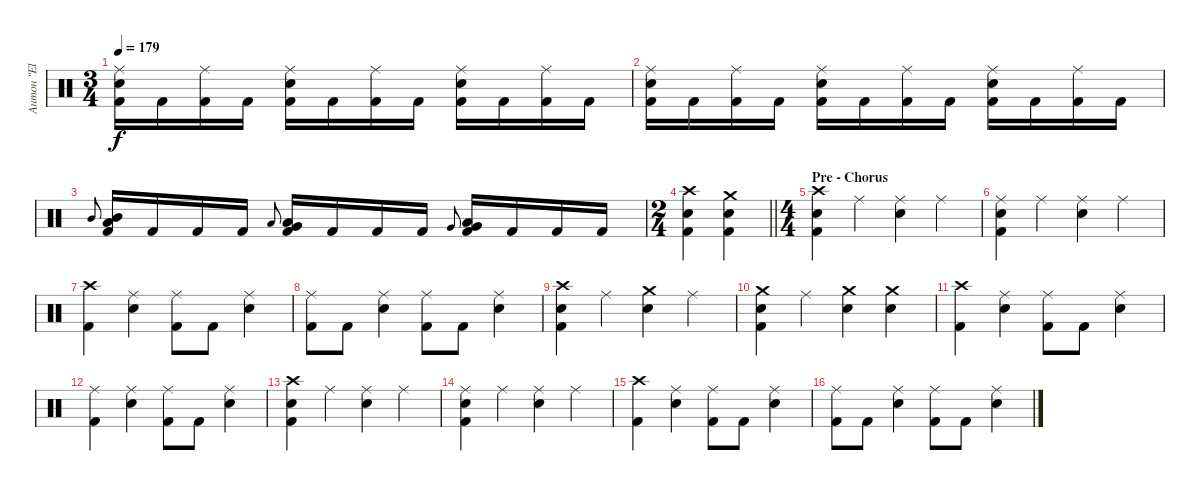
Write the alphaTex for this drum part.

\track ("Антон \"El Bastardo\" Смольянин" "Антон \"El ") {instrument percussion}
\staff {score}
\articulation defaults
\ts (3 4)
\tempo 179
\clef neutral
\ks c
("Ride (middle)" "Electric Snare (hit)" "Kick (hit) 2").16{dy f} "Kick (hit) 2".16 ("Ride (middle)" "Kick (hit) 2").16 "Kick (hit) 2".16 ("Ride (middle)" "Electric Snare (hit)" "Kick (hit) 2").16 "Kick (hit) 2".16 ("Ride (middle)" "Kick (hit) 2").16 "Kick (hit) 2".16 ("Ride (middle)" "Electric Snare (hit)" "Kick (hit) 2").16 "Kick (hit) 2".16 ("Ride (middle)" "Kick (hit) 2").16 "Kick (hit) 2".16 |
("Ride (middle)" "Electric Snare (hit)" "Kick (hit) 2").16 "Kick (hit) 2".16 ("Ride (middle)" "Kick (hit) 2").16 "Kick (hit) 2".16 ("Ride (middle)" "Electric Snare (hit)" "Kick (hit) 2").16 "Kick (hit) 2".16 ("Ride (middle)" "Kick (hit) 2").16 "Kick (hit) 2".16 ("Ride (middle)" "Electric Snare (hit)" "Kick (hit) 2").16 "Kick (hit) 2".16 ("Ride (middle)" "Kick (hit) 2").16 "Kick (hit) 2".16 |
"Mid Tom (hit)".8{gr onbeat} ("Mid Tom (hit)" "Low Tom (hit)" "Kick (hit) 2").16 "Kick (hit) 2".16 "Kick (hit) 2".16 "Kick (hit) 2".16 "Low Tom (hit)".8{gr onbeat} ("Low Tom (hit)" "Very Low Tom (hit)" "Kick (hit) 2").16 "Kick (hit) 2".16 "Kick (hit) 2".16 "Kick (hit) 2".16 "Very Low Tom (hit)".8{gr onbeat} ("Low Tom (hit)" "Very Low Tom (hit)" "Kick (hit) 2").16 "Kick (hit) 2".16 "Kick (hit) 2".16 "Kick (hit) 2".16 |
\ts (2 4)
\barLineRight lightlight
("Crash high (hit)" "Electric Snare (hit)" "Kick (hit) 2").4 ("Crash medium (hit)" "Electric Snare (hit)" "Kick (hit) 2").4 |
\ts (4 4)
\section ("" "Pre - Chorus")
("Crash high (hit)" "Electric Snare (hit)" "Kick (hit) 2").4 "Ride (middle)".4 ("Ride (middle)" "Electric Snare (hit)").4 "Ride (middle)".4 |
("Ride (middle)" "Electric Snare (hit)" "Kick (hit) 2").4 "Ride (middle)".4 ("Ride (middle)" "Electric Snare (hit)").4 "Ride (middle)".4 |
("Crash high (hit)" "Kick (hit) 2").4 ("Ride (middle)" "Electric Snare (hit)").4 ("Ride (middle)" "Kick (hit) 2").8 "Kick (hit) 2".8 ("Ride (middle)" "Electric Snare (hit)").4 |
("Ride (middle)" "Kick (hit) 2").8 "Kick (hit) 2".8 ("Ride (middle)" "Electric Snare (hit)").4 ("Ride (middle)" "Kick (hit) 2").8 "Kick (hit) 2".8 ("Ride (middle)" "Electric Snare (hit)").4 |
("Crash high (hit)" "Electric Snare (hit)" "Kick (hit) 2").4 "Ride (middle)".4 ("Crash medium (hit)" "Electric Snare (hit)").4 "Ride (middle)".4 |
("Crash medium (hit)" "Electric Snare (hit)" "Kick (hit) 2").4 "Ride (middle)".4 ("Crash medium (hit)" "Electric Snare (hit)").4 ("Crash medium (hit)" "Electric Snare (hit)").4 |
("Crash high (hit)" "Kick (hit) 2").4 ("Ride (middle)" "Electric Snare (hit)").4 ("Ride (middle)" "Kick (hit) 2").8 "Kick (hit) 2".8 ("Ride (middle)" "Electric Snare (hit)").4 |
("Ride (middle)" "Kick (hit) 2").4 ("Ride (middle)" "Electric Snare (hit)").4 ("Ride (middle)" "Kick (hit) 2").8 "Kick (hit) 2".8 ("Ride (middle)" "Electric Snare (hit)").4 |
("Crash high (hit)" "Electric Snare (hit)" "Kick (hit) 2").4 "Ride (middle)".4 ("Ride (middle)" "Electric Snare (hit)").4 "Ride (middle)".4 |
("Ride (middle)" "Electric Snare (hit)" "Kick (hit) 2").4 "Ride (middle)".4 ("Ride (middle)" "Electric Snare (hit)").4 "Ride (middle)".4 |
("Crash high (hit)" "Kick (hit) 2").4 ("Ride (middle)" "Electric Snare (hit)").4 ("Ride (middle)" "Kick (hit) 2").8 "Kick (hit) 2".8 ("Ride (middle)" "Electric Snare (hit)").4 |
("Ride (middle)" "Kick (hit) 2").8 "Kick (hit) 2".8 ("Ride (middle)" "Electric Snare (hit)").4 ("Ride (middle)" "Kick (hit) 2").8 "Kick (hit) 2".8 ("Ride (middle)" "Electric Snare (hit)").4
